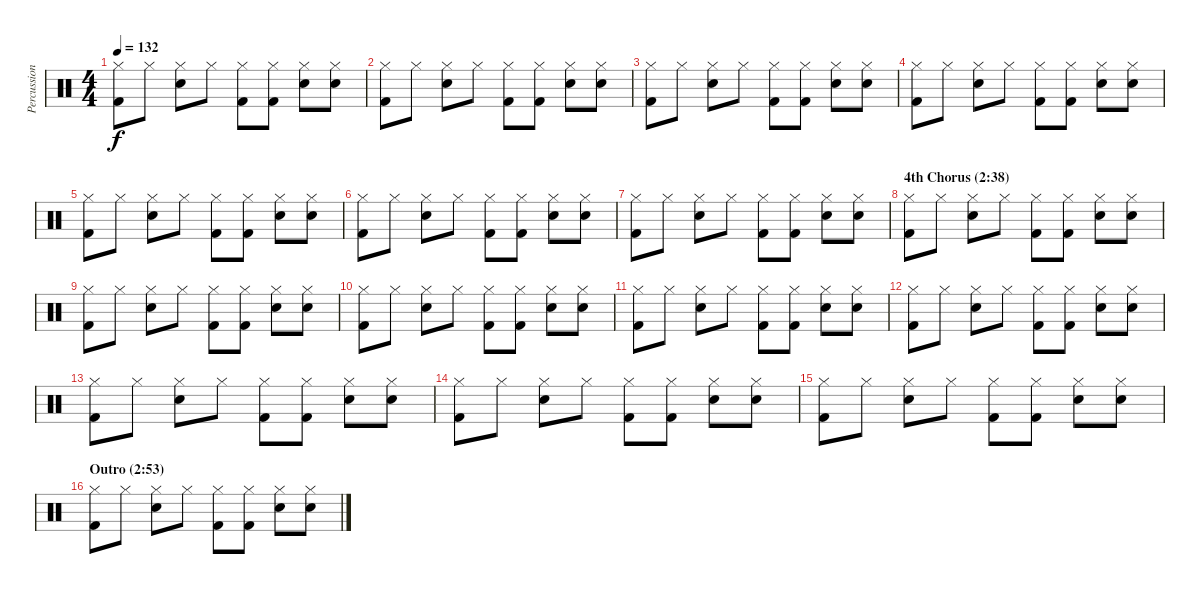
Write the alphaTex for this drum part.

\track ("Percussions" "Percussion") {instrument percussion}
\staff {score}
\articulation defaults
\ts (4 4)
\tempo 132
\clef neutral
\ks c
("Hi-Hat (closed)" "Kick (hit) 2").8{dy f} "Hi-Hat (closed)".8 ("Hi-Hat (closed)" "Snare (hit) 2").8 "Hi-Hat (closed)".8 ("Hi-Hat (closed)" "Kick (hit) 2").8 ("Hi-Hat (closed)" "Kick (hit) 2").8 ("Hi-Hat (closed)" "Snare (hit) 2").8 ("Hi-Hat (closed)" "Snare (hit) 2").8 |
("Hi-Hat (closed)" "Kick (hit) 2").8 "Hi-Hat (closed)".8 ("Hi-Hat (closed)" "Snare (hit) 2").8 "Hi-Hat (closed)".8 ("Hi-Hat (closed)" "Kick (hit) 2").8 ("Hi-Hat (closed)" "Kick (hit) 2").8 ("Hi-Hat (closed)" "Snare (hit) 2").8 ("Hi-Hat (closed)" "Snare (hit) 2").8 |
("Hi-Hat (closed)" "Kick (hit) 2").8 "Hi-Hat (closed)".8 ("Hi-Hat (closed)" "Snare (hit) 2").8 "Hi-Hat (closed)".8 ("Hi-Hat (closed)" "Kick (hit) 2").8 ("Hi-Hat (closed)" "Kick (hit) 2").8 ("Hi-Hat (closed)" "Snare (hit) 2").8 ("Hi-Hat (closed)" "Snare (hit) 2").8 |
("Hi-Hat (closed)" "Kick (hit) 2").8 "Hi-Hat (closed)".8 ("Hi-Hat (closed)" "Snare (hit) 2").8 "Hi-Hat (closed)".8 ("Hi-Hat (closed)" "Kick (hit) 2").8 ("Hi-Hat (closed)" "Kick (hit) 2").8 ("Hi-Hat (closed)" "Snare (hit) 2").8 ("Hi-Hat (closed)" "Snare (hit) 2").8 |
("Hi-Hat (closed)" "Kick (hit) 2").8 "Hi-Hat (closed)".8 ("Hi-Hat (closed)" "Snare (hit) 2").8 "Hi-Hat (closed)".8 ("Hi-Hat (closed)" "Kick (hit) 2").8 ("Hi-Hat (closed)" "Kick (hit) 2").8 ("Hi-Hat (closed)" "Snare (hit) 2").8 ("Hi-Hat (closed)" "Snare (hit) 2").8 |
("Hi-Hat (closed)" "Kick (hit) 2").8 "Hi-Hat (closed)".8 ("Hi-Hat (closed)" "Snare (hit) 2").8 "Hi-Hat (closed)".8 ("Hi-Hat (closed)" "Kick (hit) 2").8 ("Hi-Hat (closed)" "Kick (hit) 2").8 ("Hi-Hat (closed)" "Snare (hit) 2").8 ("Hi-Hat (closed)" "Snare (hit) 2").8 |
("Hi-Hat (closed)" "Kick (hit) 2").8 "Hi-Hat (closed)".8 ("Hi-Hat (closed)" "Snare (hit) 2").8 "Hi-Hat (closed)".8 ("Hi-Hat (closed)" "Kick (hit) 2").8 ("Hi-Hat (closed)" "Kick (hit) 2").8 ("Hi-Hat (closed)" "Snare (hit) 2").8 ("Hi-Hat (closed)" "Snare (hit) 2").8 |
\section ("" "4th Chorus (2:38)")
("Hi-Hat (closed)" "Kick (hit) 2").8 "Hi-Hat (closed)".8 ("Hi-Hat (closed)" "Snare (hit) 2").8 "Hi-Hat (closed)".8 ("Hi-Hat (closed)" "Kick (hit) 2").8 ("Hi-Hat (closed)" "Kick (hit) 2").8 ("Hi-Hat (closed)" "Snare (hit) 2").8 ("Hi-Hat (closed)" "Snare (hit) 2").8 |
("Hi-Hat (closed)" "Kick (hit) 2").8 "Hi-Hat (closed)".8 ("Hi-Hat (closed)" "Snare (hit) 2").8 "Hi-Hat (closed)".8 ("Hi-Hat (closed)" "Kick (hit) 2").8 ("Hi-Hat (closed)" "Kick (hit) 2").8 ("Hi-Hat (closed)" "Snare (hit) 2").8 ("Hi-Hat (closed)" "Snare (hit) 2").8 |
("Hi-Hat (closed)" "Kick (hit) 2").8 "Hi-Hat (closed)".8 ("Hi-Hat (closed)" "Snare (hit) 2").8 "Hi-Hat (closed)".8 ("Hi-Hat (closed)" "Kick (hit) 2").8 ("Hi-Hat (closed)" "Kick (hit) 2").8 ("Hi-Hat (closed)" "Snare (hit) 2").8 ("Hi-Hat (closed)" "Snare (hit) 2").8 |
("Hi-Hat (closed)" "Kick (hit) 2").8 "Hi-Hat (closed)".8 ("Hi-Hat (closed)" "Snare (hit) 2").8 "Hi-Hat (closed)".8 ("Hi-Hat (closed)" "Kick (hit) 2").8 ("Hi-Hat (closed)" "Kick (hit) 2").8 ("Hi-Hat (closed)" "Snare (hit) 2").8 ("Hi-Hat (closed)" "Snare (hit) 2").8 |
("Hi-Hat (closed)" "Kick (hit) 2").8 "Hi-Hat (closed)".8 ("Hi-Hat (closed)" "Snare (hit) 2").8 "Hi-Hat (closed)".8 ("Hi-Hat (closed)" "Kick (hit) 2").8 ("Hi-Hat (closed)" "Kick (hit) 2").8 ("Hi-Hat (closed)" "Snare (hit) 2").8 ("Hi-Hat (closed)" "Snare (hit) 2").8 |
("Hi-Hat (closed)" "Kick (hit) 2").8 "Hi-Hat (closed)".8 ("Hi-Hat (closed)" "Snare (hit) 2").8 "Hi-Hat (closed)".8 ("Hi-Hat (closed)" "Kick (hit) 2").8 ("Hi-Hat (closed)" "Kick (hit) 2").8 ("Hi-Hat (closed)" "Snare (hit) 2").8 ("Hi-Hat (closed)" "Snare (hit) 2").8 |
("Hi-Hat (closed)" "Kick (hit) 2").8 "Hi-Hat (closed)".8 ("Hi-Hat (closed)" "Snare (hit) 2").8 "Hi-Hat (closed)".8 ("Hi-Hat (closed)" "Kick (hit) 2").8 ("Hi-Hat (closed)" "Kick (hit) 2").8 ("Hi-Hat (closed)" "Snare (hit) 2").8 ("Hi-Hat (closed)" "Snare (hit) 2").8 |
("Hi-Hat (closed)" "Kick (hit) 2").8 "Hi-Hat (closed)".8 ("Hi-Hat (closed)" "Snare (hit) 2").8 "Hi-Hat (closed)".8 ("Hi-Hat (closed)" "Kick (hit) 2").8 ("Hi-Hat (closed)" "Kick (hit) 2").8 ("Hi-Hat (closed)" "Snare (hit) 2").8 ("Hi-Hat (closed)" "Snare (hit) 2").8 |
\section ("" "Outro (2:53)")
("Hi-Hat (closed)" "Kick (hit) 2").8 "Hi-Hat (closed)".8 ("Hi-Hat (closed)" "Snare (hit) 2").8 "Hi-Hat (closed)".8 ("Hi-Hat (closed)" "Kick (hit) 2").8 ("Hi-Hat (closed)" "Kick (hit) 2").8 ("Hi-Hat (closed)" "Snare (hit) 2").8 ("Hi-Hat (closed)" "Snare (hit) 2").8
